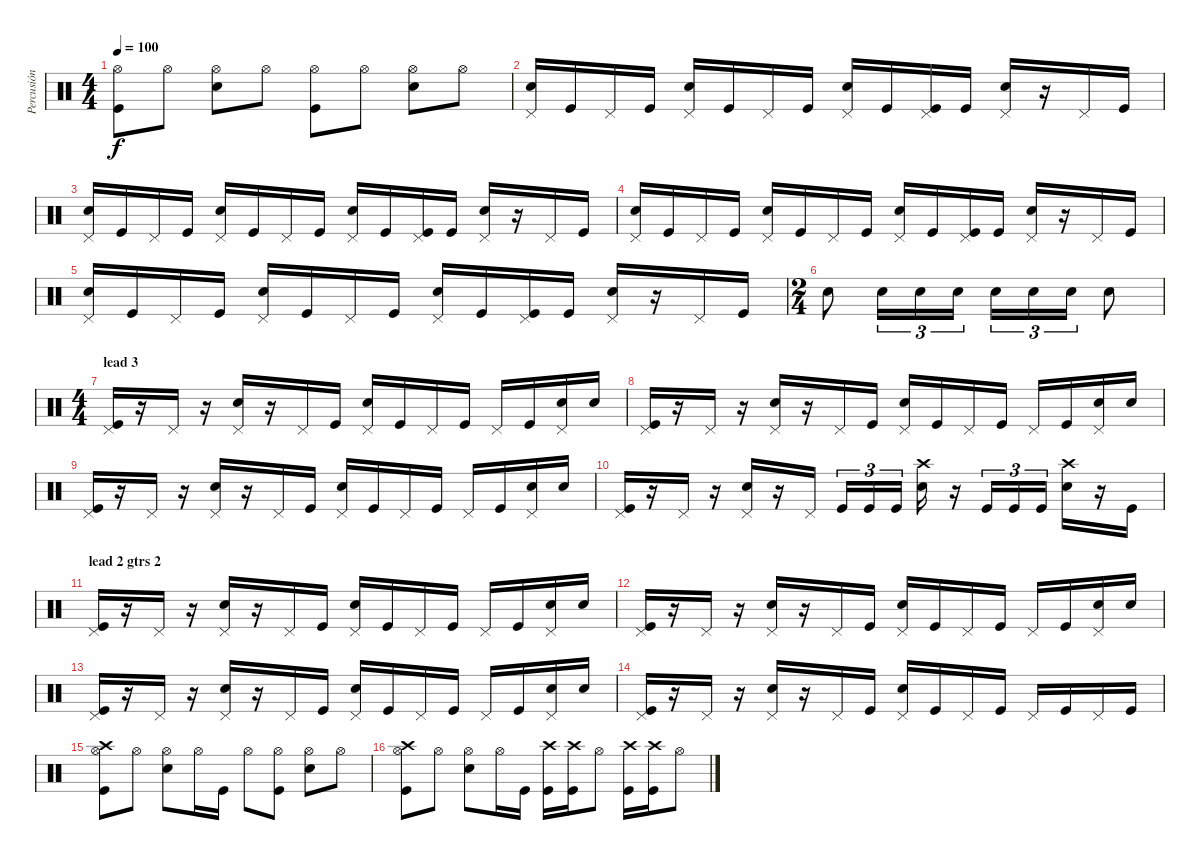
\track ("Percusión" "Percusión") {instrument percussion}
\staff {score}
\articulation defaults
\ts (4 4)
\tempo 100
\clef neutral
\ks c
("Hi-Hat (open)" "Kick (hit)").8{dy f} "Hi-Hat (open)".8 ("Hi-Hat (open)" "Electric Snare (hit)").8 "Hi-Hat (open)".8 ("Hi-Hat (open)" "Kick (hit)").8 "Hi-Hat (open)".8 ("Hi-Hat (open)" "Electric Snare (hit)").8 "Hi-Hat (open)".8 |
("Pedal Hi-Hat (hit)" "Electric Snare (hit)").16 "Kick (hit)".16 "Pedal Hi-Hat (hit)".16 "Kick (hit)".16 ("Pedal Hi-Hat (hit)" "Electric Snare (hit)").16 "Kick (hit)".16 "Pedal Hi-Hat (hit)".16 "Kick (hit)".16 ("Pedal Hi-Hat (hit)" "Electric Snare (hit)").16 "Kick (hit)".16 ("Pedal Hi-Hat (hit)" "Kick (hit)").16 "Kick (hit)".16 ("Pedal Hi-Hat (hit)" "Electric Snare (hit)").16 r.16 "Pedal Hi-Hat (hit)".16 "Kick (hit)".16 |
("Pedal Hi-Hat (hit)" "Electric Snare (hit)").16 "Kick (hit)".16 "Pedal Hi-Hat (hit)".16 "Kick (hit)".16 ("Pedal Hi-Hat (hit)" "Electric Snare (hit)").16 "Kick (hit)".16 "Pedal Hi-Hat (hit)".16 "Kick (hit)".16 ("Pedal Hi-Hat (hit)" "Electric Snare (hit)").16 "Kick (hit)".16 ("Pedal Hi-Hat (hit)" "Kick (hit)").16 "Kick (hit)".16 ("Pedal Hi-Hat (hit)" "Electric Snare (hit)").16 r.16 "Pedal Hi-Hat (hit)".16 "Kick (hit)".16 |
("Pedal Hi-Hat (hit)" "Electric Snare (hit)").16 "Kick (hit)".16 "Pedal Hi-Hat (hit)".16 "Kick (hit)".16 ("Pedal Hi-Hat (hit)" "Electric Snare (hit)").16 "Kick (hit)".16 "Pedal Hi-Hat (hit)".16 "Kick (hit)".16 ("Pedal Hi-Hat (hit)" "Electric Snare (hit)").16 "Kick (hit)".16 ("Pedal Hi-Hat (hit)" "Kick (hit)").16 "Kick (hit)".16 ("Pedal Hi-Hat (hit)" "Electric Snare (hit)").16 r.16 "Pedal Hi-Hat (hit)".16 "Kick (hit)".16 |
("Pedal Hi-Hat (hit)" "Electric Snare (hit)").16 "Kick (hit)".16 "Pedal Hi-Hat (hit)".16 "Kick (hit)".16 ("Pedal Hi-Hat (hit)" "Electric Snare (hit)").16 "Kick (hit)".16 "Pedal Hi-Hat (hit)".16 "Kick (hit)".16 ("Pedal Hi-Hat (hit)" "Electric Snare (hit)").16 "Kick (hit)".16 ("Pedal Hi-Hat (hit)" "Kick (hit)").16 "Kick (hit)".16 ("Pedal Hi-Hat (hit)" "Electric Snare (hit)").16 r.16 "Pedal Hi-Hat (hit)".16 "Kick (hit)".16 |
\ts (2 4)
"Electric Snare (hit)".8 "Electric Snare (hit)".16{tu (3 2)} "Electric Snare (hit)".16{tu (3 2)} "Electric Snare (hit)".16{tu (3 2)} "Electric Snare (hit)".16{tu (3 2)} "Electric Snare (hit)".16{tu (3 2)} "Electric Snare (hit)".16{tu (3 2)} "Electric Snare (hit)".8 |
\ts (4 4)
\section ("" "lead 3")
("Pedal Hi-Hat (hit)" "Kick (hit)").16 r.16 "Pedal Hi-Hat (hit)".16 r.16 ("Pedal Hi-Hat (hit)" "Electric Snare (hit)").16 r.16 "Pedal Hi-Hat (hit)".16 "Kick (hit)".16 ("Pedal Hi-Hat (hit)" "Electric Snare (hit)").16 "Kick (hit)".16 "Pedal Hi-Hat (hit)".16 "Kick (hit)".16 "Pedal Hi-Hat (hit)".16 "Kick (hit)".16 ("Pedal Hi-Hat (hit)" "Electric Snare (hit)").16 "Electric Snare (hit)".16 |
("Pedal Hi-Hat (hit)" "Kick (hit)").16 r.16 "Pedal Hi-Hat (hit)".16 r.16 ("Pedal Hi-Hat (hit)" "Electric Snare (hit)").16 r.16 "Pedal Hi-Hat (hit)".16 "Kick (hit)".16 ("Pedal Hi-Hat (hit)" "Electric Snare (hit)").16 "Kick (hit)".16 "Pedal Hi-Hat (hit)".16 "Kick (hit)".16 "Pedal Hi-Hat (hit)".16 "Kick (hit)".16 ("Pedal Hi-Hat (hit)" "Electric Snare (hit)").16 "Electric Snare (hit)".16 |
("Pedal Hi-Hat (hit)" "Kick (hit)").16 r.16 "Pedal Hi-Hat (hit)".16 r.16 ("Pedal Hi-Hat (hit)" "Electric Snare (hit)").16 r.16 "Pedal Hi-Hat (hit)".16 "Kick (hit)".16 ("Pedal Hi-Hat (hit)" "Electric Snare (hit)").16 "Kick (hit)".16 "Pedal Hi-Hat (hit)".16 "Kick (hit)".16 "Pedal Hi-Hat (hit)".16 "Kick (hit)".16 ("Pedal Hi-Hat (hit)" "Electric Snare (hit)").16 "Electric Snare (hit)".16 |
("Pedal Hi-Hat (hit)" "Kick (hit)").16 r.16 "Pedal Hi-Hat (hit)".16 r.16 ("Pedal Hi-Hat (hit)" "Electric Snare (hit)").16 r.16 "Pedal Hi-Hat (hit)".16 "Kick (hit)".16{tu (3 2)} "Kick (hit)".16{tu (3 2)} "Kick (hit)".16{tu (3 2)} ("Crash high (hit)" "Electric Snare (hit)").16 r.16 "Kick (hit)".16{tu (3 2)} "Kick (hit)".16{tu (3 2)} "Kick (hit)".16{tu (3 2)} ("Crash high (hit)" "Electric Snare (hit)").16 r.16 "Kick (hit)".16 |
\section ("" "lead 2 gtrs 2")
("Pedal Hi-Hat (hit)" "Kick (hit)").16 r.16 "Pedal Hi-Hat (hit)".16 r.16 ("Pedal Hi-Hat (hit)" "Electric Snare (hit)").16 r.16 "Pedal Hi-Hat (hit)".16 "Kick (hit)".16 ("Pedal Hi-Hat (hit)" "Electric Snare (hit)").16 "Kick (hit)".16 "Pedal Hi-Hat (hit)".16 "Kick (hit)".16 "Pedal Hi-Hat (hit)".16 "Kick (hit)".16 ("Pedal Hi-Hat (hit)" "Electric Snare (hit)").16 "Electric Snare (hit)".16 |
("Pedal Hi-Hat (hit)" "Kick (hit)").16 r.16 "Pedal Hi-Hat (hit)".16 r.16 ("Pedal Hi-Hat (hit)" "Electric Snare (hit)").16 r.16 "Pedal Hi-Hat (hit)".16 "Kick (hit)".16 ("Pedal Hi-Hat (hit)" "Electric Snare (hit)").16 "Kick (hit)".16 "Pedal Hi-Hat (hit)".16 "Kick (hit)".16 "Pedal Hi-Hat (hit)".16 "Kick (hit)".16 ("Pedal Hi-Hat (hit)" "Electric Snare (hit)").16 "Electric Snare (hit)".16 |
("Pedal Hi-Hat (hit)" "Kick (hit)").16 r.16 "Pedal Hi-Hat (hit)".16 r.16 ("Pedal Hi-Hat (hit)" "Electric Snare (hit)").16 r.16 "Pedal Hi-Hat (hit)".16 "Kick (hit)".16 ("Pedal Hi-Hat (hit)" "Electric Snare (hit)").16 "Kick (hit)".16 "Pedal Hi-Hat (hit)".16 "Kick (hit)".16 "Pedal Hi-Hat (hit)".16 "Kick (hit)".16 ("Pedal Hi-Hat (hit)" "Electric Snare (hit)").16 "Electric Snare (hit)".16 |
("Pedal Hi-Hat (hit)" "Kick (hit)").16 r.16 "Pedal Hi-Hat (hit)".16 r.16 ("Pedal Hi-Hat (hit)" "Electric Snare (hit)").16 r.16 "Pedal Hi-Hat (hit)".16 "Kick (hit)".16 ("Pedal Hi-Hat (hit)" "Electric Snare (hit)").16 "Kick (hit)".16 "Pedal Hi-Hat (hit)".16 "Kick (hit)".16 "Pedal Hi-Hat (hit)".16 "Kick (hit)".16 "Pedal Hi-Hat (hit)".16 "Kick (hit)".16 |
("Crash high (hit)" "Hi-Hat (open)" "Kick (hit)").8 "Hi-Hat (open)".8 ("Hi-Hat (open)" "Electric Snare (hit)").8 "Hi-Hat (open)".16 "Kick (hit)".16 "Hi-Hat (open)".8 ("Hi-Hat (open)" "Kick (hit)").8 ("Hi-Hat (open)" "Electric Snare (hit)").8 "Hi-Hat (open)".8 |
("Crash high (hit)" "Hi-Hat (open)" "Kick (hit)").8 "Hi-Hat (open)".8 ("Hi-Hat (open)" "Electric Snare (hit)").8 "Hi-Hat (open)".16 "Kick (hit)".16 ("Crash high (hit)" "Kick (hit)").16 ("Crash high (hit)" "Kick (hit)").16 "Hi-Hat (open)".8 ("Crash high (hit)" "Kick (hit)").16 ("Crash high (hit)" "Kick (hit)").16 "Hi-Hat (open)".8
